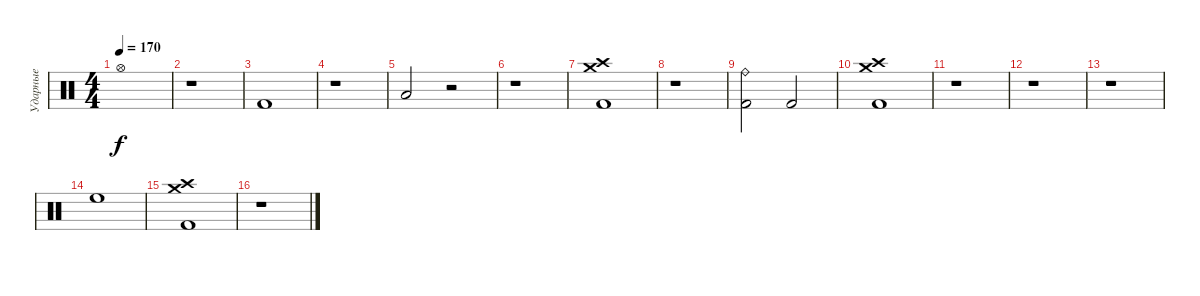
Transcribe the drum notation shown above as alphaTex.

\track ("Ударные" "Ударные") {instrument percussion}
\staff {score}
\articulation defaults
\ts (4 4)
\tempo 170
\clef neutral
\ks c "Hi-Hat (open)".1{dy f}
|
r.1 |
"Kick (hit) 2".1 |
r.1 |
"Low Floor Tom (hit)".2 r.2 |
r.1 |
("Kick (hit) 2" "Crash high (hit)" "Crash medium (hit)").1 |
r.1 |
("Kick (hit) 2" "Ride (bell)").2 "Kick (hit) 2".2 |
("Kick (hit) 2" "Crash high (hit)" "Crash medium (hit)").1 |
r.1 |
r.1 |
r.1 |
"High Floor Tom (hit)".1 |
("Kick (hit) 2" "Crash high (hit)" "Crash medium (hit)").1 |
r.1
